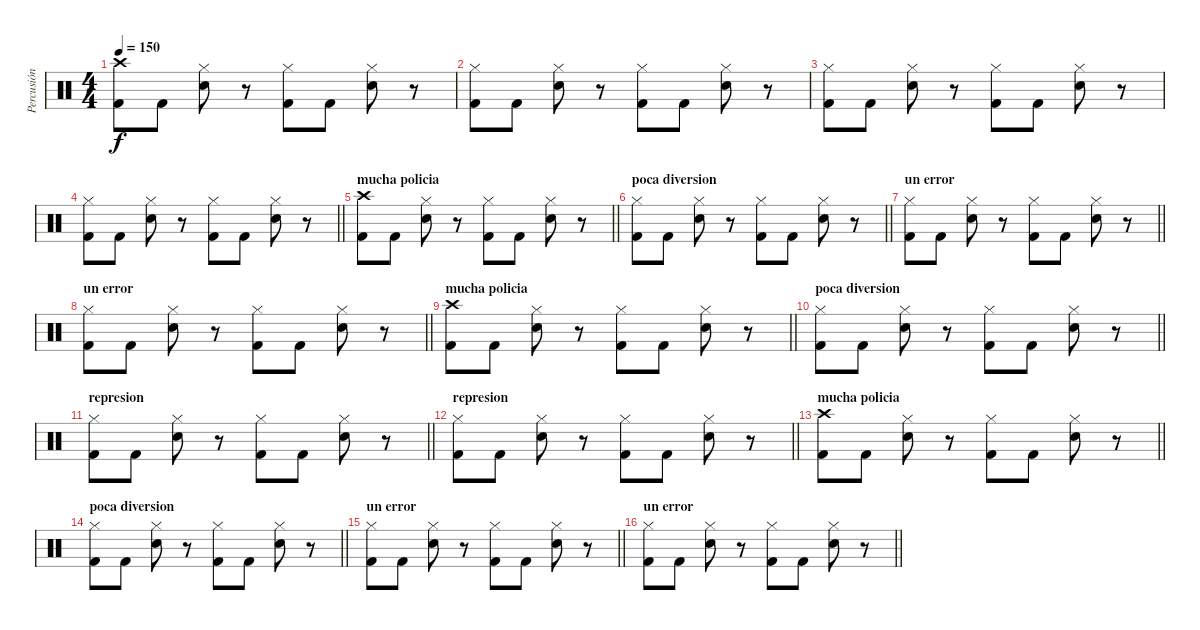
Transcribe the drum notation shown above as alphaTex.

\track ("Percusión" "Percusión") {instrument percussion}
\staff {score}
\articulation defaults
\ts (4 4)
\tempo 150
\clef neutral
\ks c
("Crash high (hit)" "Kick (hit) 2").8{dy f} "Kick (hit) 2".8 ("Hi-Hat (closed)" "Electric Snare (hit)").8 r.8 ("Hi-Hat (closed)" "Kick (hit) 2").8 "Kick (hit) 2".8 ("Hi-Hat (closed)" "Electric Snare (hit)").8 r.8 |
("Hi-Hat (closed)" "Kick (hit) 2").8 "Kick (hit) 2".8 ("Hi-Hat (closed)" "Electric Snare (hit)").8 r.8 ("Hi-Hat (closed)" "Kick (hit) 2").8 "Kick (hit) 2".8 ("Hi-Hat (closed)" "Electric Snare (hit)").8 r.8 |
("Hi-Hat (closed)" "Kick (hit) 2").8 "Kick (hit) 2".8 ("Hi-Hat (closed)" "Electric Snare (hit)").8 r.8 ("Hi-Hat (closed)" "Kick (hit) 2").8 "Kick (hit) 2".8 ("Hi-Hat (closed)" "Electric Snare (hit)").8 r.8 |
\barLineRight lightlight
("Hi-Hat (closed)" "Kick (hit) 2").8 "Kick (hit) 2".8 ("Hi-Hat (closed)" "Electric Snare (hit)").8 r.8 ("Hi-Hat (closed)" "Kick (hit) 2").8 "Kick (hit) 2".8 ("Hi-Hat (closed)" "Electric Snare (hit)").8 r.8 |
\section ("" "mucha policia")
\barLineRight lightlight
("Crash high (hit)" "Kick (hit) 2").8 "Kick (hit) 2".8 ("Hi-Hat (closed)" "Electric Snare (hit)").8 r.8 ("Hi-Hat (closed)" "Kick (hit) 2").8 "Kick (hit) 2".8 ("Hi-Hat (closed)" "Electric Snare (hit)").8 r.8 |
\section ("" "poca diversion")
\barLineRight lightlight
("Hi-Hat (closed)" "Kick (hit) 2").8 "Kick (hit) 2".8 ("Hi-Hat (closed)" "Electric Snare (hit)").8 r.8 ("Hi-Hat (closed)" "Kick (hit) 2").8 "Kick (hit) 2".8 ("Hi-Hat (closed)" "Electric Snare (hit)").8 r.8 |
\section ("" "un error")
\barLineRight lightlight
("Hi-Hat (closed)" "Kick (hit) 2").8 "Kick (hit) 2".8 ("Hi-Hat (closed)" "Electric Snare (hit)").8 r.8 ("Hi-Hat (closed)" "Kick (hit) 2").8 "Kick (hit) 2".8 ("Hi-Hat (closed)" "Electric Snare (hit)").8 r.8 |
\section ("" "un error")
\barLineRight lightlight
("Hi-Hat (closed)" "Kick (hit) 2").8 "Kick (hit) 2".8 ("Hi-Hat (closed)" "Electric Snare (hit)").8 r.8 ("Hi-Hat (closed)" "Kick (hit) 2").8 "Kick (hit) 2".8 ("Hi-Hat (closed)" "Electric Snare (hit)").8 r.8 |
\section ("" "mucha policia")
\barLineRight lightlight
("Crash high (hit)" "Kick (hit) 2").8 "Kick (hit) 2".8 ("Hi-Hat (closed)" "Electric Snare (hit)").8 r.8 ("Hi-Hat (closed)" "Kick (hit) 2").8 "Kick (hit) 2".8 ("Hi-Hat (closed)" "Electric Snare (hit)").8 r.8 |
\section ("" "poca diversion")
\barLineRight lightlight
("Hi-Hat (closed)" "Kick (hit) 2").8 "Kick (hit) 2".8 ("Hi-Hat (closed)" "Electric Snare (hit)").8 r.8 ("Hi-Hat (closed)" "Kick (hit) 2").8 "Kick (hit) 2".8 ("Hi-Hat (closed)" "Electric Snare (hit)").8 r.8 |
\section ("" "represion")
\barLineRight lightlight
("Hi-Hat (closed)" "Kick (hit) 2").8 "Kick (hit) 2".8 ("Hi-Hat (closed)" "Electric Snare (hit)").8 r.8 ("Hi-Hat (closed)" "Kick (hit) 2").8 "Kick (hit) 2".8 ("Hi-Hat (closed)" "Electric Snare (hit)").8 r.8 |
\section ("" "represion")
\barLineRight lightlight
("Hi-Hat (closed)" "Kick (hit) 2").8 "Kick (hit) 2".8 ("Hi-Hat (closed)" "Electric Snare (hit)").8 r.8 ("Hi-Hat (closed)" "Kick (hit) 2").8 "Kick (hit) 2".8 ("Hi-Hat (closed)" "Electric Snare (hit)").8 r.8 |
\section ("" "mucha policia")
\barLineRight lightlight
("Crash high (hit)" "Kick (hit) 2").8 "Kick (hit) 2".8 ("Hi-Hat (closed)" "Electric Snare (hit)").8 r.8 ("Hi-Hat (closed)" "Kick (hit) 2").8 "Kick (hit) 2".8 ("Hi-Hat (closed)" "Electric Snare (hit)").8 r.8 |
\section ("" "poca diversion")
\barLineRight lightlight
("Hi-Hat (closed)" "Kick (hit) 2").8 "Kick (hit) 2".8 ("Hi-Hat (closed)" "Electric Snare (hit)").8 r.8 ("Hi-Hat (closed)" "Kick (hit) 2").8 "Kick (hit) 2".8 ("Hi-Hat (closed)" "Electric Snare (hit)").8 r.8 |
\section ("" "un error")
\barLineRight lightlight
("Hi-Hat (closed)" "Kick (hit) 2").8 "Kick (hit) 2".8 ("Hi-Hat (closed)" "Electric Snare (hit)").8 r.8 ("Hi-Hat (closed)" "Kick (hit) 2").8 "Kick (hit) 2".8 ("Hi-Hat (closed)" "Electric Snare (hit)").8 r.8 |
\section ("" "un error")
\barLineRight lightlight
("Hi-Hat (closed)" "Kick (hit) 2").8 "Kick (hit) 2".8 ("Hi-Hat (closed)" "Electric Snare (hit)").8 r.8 ("Hi-Hat (closed)" "Kick (hit) 2").8 "Kick (hit) 2".8 ("Hi-Hat (closed)" "Electric Snare (hit)").8 r.8
